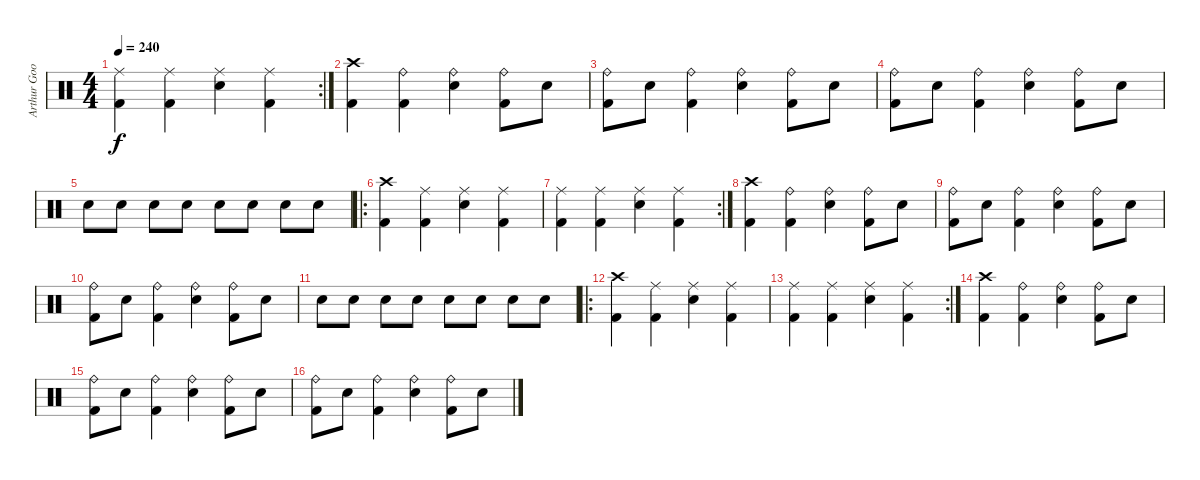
\track ("Arthur Googy" "Arthur Goo") {instrument percussion}
\staff {score}
\articulation defaults
\rc 2
\ts (4 4)
\tempo 240
\clef neutral
\ks c
("Ride (middle)" "Kick (hit) 2").4{dy f} ("Ride (middle)" "Kick (hit) 2").4 ("Ride (middle)" "Electric Snare (hit)").4 ("Ride (middle)" "Kick (hit) 2").4 |
("Crash high (hit)" "Kick (hit) 2").4 ("Ride (bell)" "Kick (hit) 2").4 ("Ride (bell)" "Electric Snare (hit)").4 ("Ride (bell)" "Kick (hit) 2").8 "Electric Snare (hit)".8 |
("Ride (bell)" "Kick (hit) 2").8 "Electric Snare (hit)".8 ("Ride (bell)" "Kick (hit) 2").4 ("Ride (bell)" "Electric Snare (hit)").4 ("Ride (bell)" "Kick (hit) 2").8 "Electric Snare (hit)".8 |
("Ride (bell)" "Kick (hit) 2").8 "Electric Snare (hit)".8 ("Ride (bell)" "Kick (hit) 2").4 ("Ride (bell)" "Electric Snare (hit)").4 ("Ride (bell)" "Kick (hit) 2").8 "Electric Snare (hit)".8 |
"Electric Snare (hit)".8 "Electric Snare (hit)".8 "Electric Snare (hit)".8 "Electric Snare (hit)".8 "Electric Snare (hit)".8 "Electric Snare (hit)".8 "Electric Snare (hit)".8 "Electric Snare (hit)".8 |
\ro
("Crash high (hit)" "Kick (hit) 2").4 ("Ride (middle)" "Kick (hit) 2").4 ("Ride (middle)" "Electric Snare (hit)").4 ("Ride (middle)" "Kick (hit) 2").4 |
\rc 2
("Ride (middle)" "Kick (hit) 2").4 ("Ride (middle)" "Kick (hit) 2").4 ("Ride (middle)" "Electric Snare (hit)").4 ("Ride (middle)" "Kick (hit) 2").4 |
("Crash high (hit)" "Kick (hit) 2").4 ("Ride (bell)" "Kick (hit) 2").4 ("Ride (bell)" "Electric Snare (hit)").4 ("Ride (bell)" "Kick (hit) 2").8 "Electric Snare (hit)".8 |
("Ride (bell)" "Kick (hit) 2").8 "Electric Snare (hit)".8 ("Ride (bell)" "Kick (hit) 2").4 ("Ride (bell)" "Electric Snare (hit)").4 ("Ride (bell)" "Kick (hit) 2").8 "Electric Snare (hit)".8 |
("Ride (bell)" "Kick (hit) 2").8 "Electric Snare (hit)".8 ("Ride (bell)" "Kick (hit) 2").4 ("Ride (bell)" "Electric Snare (hit)").4 ("Ride (bell)" "Kick (hit) 2").8 "Electric Snare (hit)".8 |
"Electric Snare (hit)".8 "Electric Snare (hit)".8 "Electric Snare (hit)".8 "Electric Snare (hit)".8 "Electric Snare (hit)".8 "Electric Snare (hit)".8 "Electric Snare (hit)".8 "Electric Snare (hit)".8 |
\ro
("Crash high (hit)" "Kick (hit) 2").4 ("Ride (middle)" "Kick (hit) 2").4 ("Ride (middle)" "Electric Snare (hit)").4 ("Ride (middle)" "Kick (hit) 2").4 |
\rc 2
("Ride (middle)" "Kick (hit) 2").4 ("Ride (middle)" "Kick (hit) 2").4 ("Ride (middle)" "Electric Snare (hit)").4 ("Ride (middle)" "Kick (hit) 2").4 |
("Crash high (hit)" "Kick (hit) 2").4 ("Ride (bell)" "Kick (hit) 2").4 ("Ride (bell)" "Electric Snare (hit)").4 ("Ride (bell)" "Kick (hit) 2").8 "Electric Snare (hit)".8 |
("Ride (bell)" "Kick (hit) 2").8 "Electric Snare (hit)".8 ("Ride (bell)" "Kick (hit) 2").4 ("Ride (bell)" "Electric Snare (hit)").4 ("Ride (bell)" "Kick (hit) 2").8 "Electric Snare (hit)".8 |
("Ride (bell)" "Kick (hit) 2").8 "Electric Snare (hit)".8 ("Ride (bell)" "Kick (hit) 2").4 ("Ride (bell)" "Electric Snare (hit)").4 ("Ride (bell)" "Kick (hit) 2").8 "Electric Snare (hit)".8
